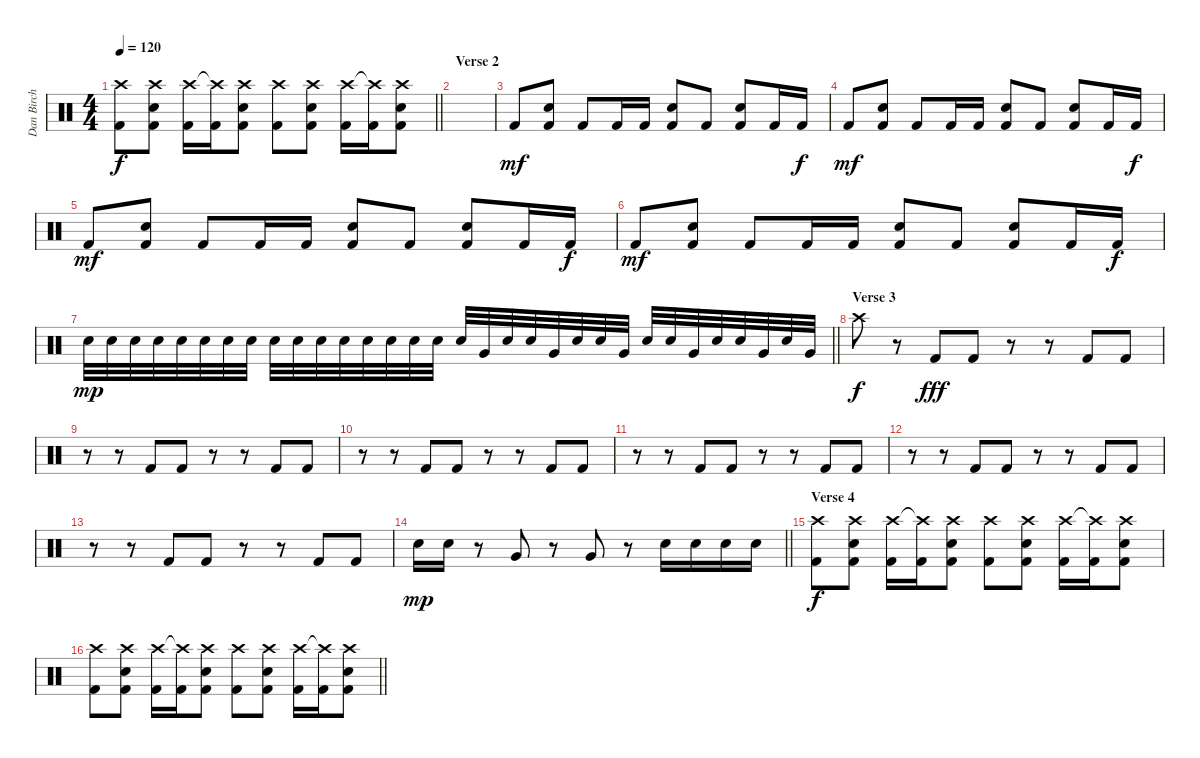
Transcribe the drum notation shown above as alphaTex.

\track ("Dan Birch" "Dan Birch") {instrument percussion}
\staff {score}
\articulation defaults
\ts (4 4)
\tempo 120
\clef neutral
\barLineRight lightlight
\ks c
("Crash high (hit)" "Kick (hit) 2").8{dy f} ("Crash high (hit)" "Snare (hit) 2" "Kick (hit) 2").8 ("Crash high (hit)" "Kick (hit) 2").16 ("Crash high (hit)"{t} "Kick (hit) 2").16 ("Crash high (hit)" "Snare (hit) 2" "Kick (hit) 2").8 ("Crash high (hit)" "Kick (hit) 2").8 ("Crash high (hit)" "Snare (hit) 2" "Kick (hit) 2").8 ("Crash high (hit)" "Kick (hit) 2").16 ("Crash high (hit)"{t} "Kick (hit) 2").16 ("Crash high (hit)" "Snare (hit) 2" "Kick (hit) 2").8 |
\section ("" "Verse 2")
|
"Kick (hit) 2".8{dy mf} ("Snare (hit) 2" "Kick (hit) 2").8 "Kick (hit) 2".8 "Kick (hit) 2".16 "Kick (hit) 2".16 ("Snare (hit) 2" "Kick (hit) 2").8 "Kick (hit) 2".8 ("Snare (hit) 2" "Kick (hit) 2").8 "Kick (hit) 2".16 "Kick (hit) 2".16{dy f} |
"Kick (hit) 2".8{dy mf} ("Snare (hit) 2" "Kick (hit) 2").8 "Kick (hit) 2".8 "Kick (hit) 2".16 "Kick (hit) 2".16 ("Snare (hit) 2" "Kick (hit) 2").8 "Kick (hit) 2".8 ("Snare (hit) 2" "Kick (hit) 2").8 "Kick (hit) 2".16 "Kick (hit) 2".16{dy f} |
"Kick (hit) 2".8{dy mf} ("Snare (hit) 2" "Kick (hit) 2").8 "Kick (hit) 2".8 "Kick (hit) 2".16 "Kick (hit) 2".16 ("Snare (hit) 2" "Kick (hit) 2").8 "Kick (hit) 2".8 ("Snare (hit) 2" "Kick (hit) 2").8 "Kick (hit) 2".16 "Kick (hit) 2".16{dy f} |
"Kick (hit) 2".8{dy mf} ("Snare (hit) 2" "Kick (hit) 2").8 "Kick (hit) 2".8 "Kick (hit) 2".16 "Kick (hit) 2".16 ("Snare (hit) 2" "Kick (hit) 2").8 "Kick (hit) 2".8 ("Snare (hit) 2" "Kick (hit) 2").8 "Kick (hit) 2".16 "Kick (hit) 2".16{dy f} |
\barLineRight lightlight "Snare (hit) 2".32{dy mp} "Snare (hit) 2".32 "Snare (hit) 2".32 "Snare (hit) 2".32 "Snare (hit) 2".32 "Snare (hit) 2".32 "Snare (hit) 2".32 "Snare (hit) 2".32 "Snare (hit) 2".32 "Snare (hit) 2".32 "Snare (hit) 2".32 "Snare (hit) 2".32 "Snare (hit) 2".32 "Snare (hit) 2".32 "Snare (hit) 2".32 "Snare (hit) 2".32 "Snare (hit) 2".32 "Very Low Tom (hit)".32 "Snare (hit) 2".32 "Snare (hit) 2".32 "Very Low Tom (hit)".32 "Snare (hit) 2".32 "Snare (hit) 2".32 "Very Low Tom (hit)".32 "Snare (hit) 2".32 "Snare (hit) 2".32 "Very Low Tom (hit)".32 "Snare (hit) 2".32 "Snare (hit) 2".32 "Very Low Tom (hit)".32 "Snare (hit) 2".32 "Very Low Tom (hit)".32
|
\section ("" "Verse 3")
"Crash high (hit)".8{dy f} r.8 "Kick (hit) 2".8{dy fff} "Kick (hit) 2".8 r.8 r.8 "Kick (hit) 2".8 "Kick (hit) 2".8 |
r.8 r.8 "Kick (hit) 2".8 "Kick (hit) 2".8 r.8 r.8 "Kick (hit) 2".8 "Kick (hit) 2".8 |
r.8 r.8 "Kick (hit) 2".8 "Kick (hit) 2".8 r.8 r.8 "Kick (hit) 2".8 "Kick (hit) 2".8 |
r.8 r.8 "Kick (hit) 2".8 "Kick (hit) 2".8 r.8 r.8 "Kick (hit) 2".8 "Kick (hit) 2".8 |
r.8 r.8 "Kick (hit) 2".8 "Kick (hit) 2".8 r.8 r.8 "Kick (hit) 2".8 "Kick (hit) 2".8 |
r.8 r.8 "Kick (hit) 2".8 "Kick (hit) 2".8 r.8 r.8 "Kick (hit) 2".8 "Kick (hit) 2".8 |
\barLineRight lightlight "Snare (hit) 2".16{dy mp} "Snare (hit) 2".16
r.8 "Very Low Tom (hit)".8 r.8 "Very Low Tom (hit)".8 r.8 "Snare (hit) 2".16 "Snare (hit) 2".16 "Snare (hit) 2".16 "Snare (hit) 2".16 |
\section ("" "Verse 4")
("Crash high (hit)" "Kick (hit) 2").8{dy f} ("Crash high (hit)" "Snare (hit) 2" "Kick (hit) 2").8 ("Crash high (hit)" "Kick (hit) 2").16 ("Crash high (hit)"{t} "Kick (hit) 2").16 ("Crash high (hit)" "Snare (hit) 2" "Kick (hit) 2").8 ("Crash high (hit)" "Kick (hit) 2").8 ("Crash high (hit)" "Snare (hit) 2" "Kick (hit) 2").8 ("Crash high (hit)" "Kick (hit) 2").16 ("Crash high (hit)"{t} "Kick (hit) 2").16 ("Crash high (hit)" "Snare (hit) 2" "Kick (hit) 2").8 |
\barLineRight lightlight
("Crash high (hit)" "Kick (hit) 2").8 ("Crash high (hit)" "Snare (hit) 2" "Kick (hit) 2").8 ("Crash high (hit)" "Kick (hit) 2").16 ("Crash high (hit)"{t} "Kick (hit) 2").16 ("Crash high (hit)" "Snare (hit) 2" "Kick (hit) 2").8 ("Crash high (hit)" "Kick (hit) 2").8 ("Crash high (hit)" "Snare (hit) 2" "Kick (hit) 2").8 ("Crash high (hit)" "Kick (hit) 2").16 ("Crash high (hit)"{t} "Kick (hit) 2").16 ("Crash high (hit)" "Snare (hit) 2" "Kick (hit) 2").8
